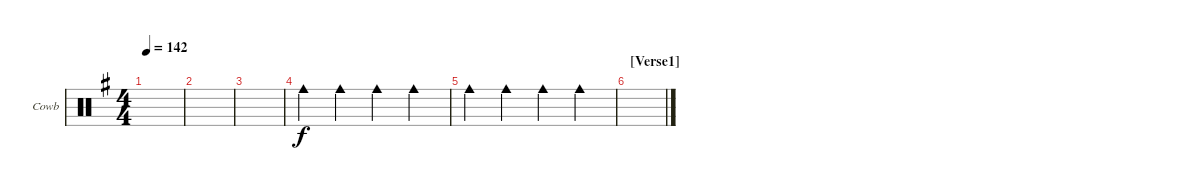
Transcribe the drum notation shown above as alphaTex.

\bracketExtendMode groupsimilarinstruments
\firstSystemTrackNameOrientation horizontal
\otherSystemsTrackNameOrientation horizontal
\track ("Cowbell" "Cowb") {instrument percussion}
\staff {score}
\articulation defaults
\ts (4 4)
\tempo 142
\clef neutral
\ks eminor
|
|
|
"Cowbell medium (hit)".4 "Cowbell medium (hit)".4 "Cowbell medium (hit)".4 "Cowbell medium (hit)".4 |
"Cowbell medium (hit)".4 "Cowbell medium (hit)".4 "Cowbell medium (hit)".4 "Cowbell medium (hit)".4 |
\section ("" "[Verse1] ")
